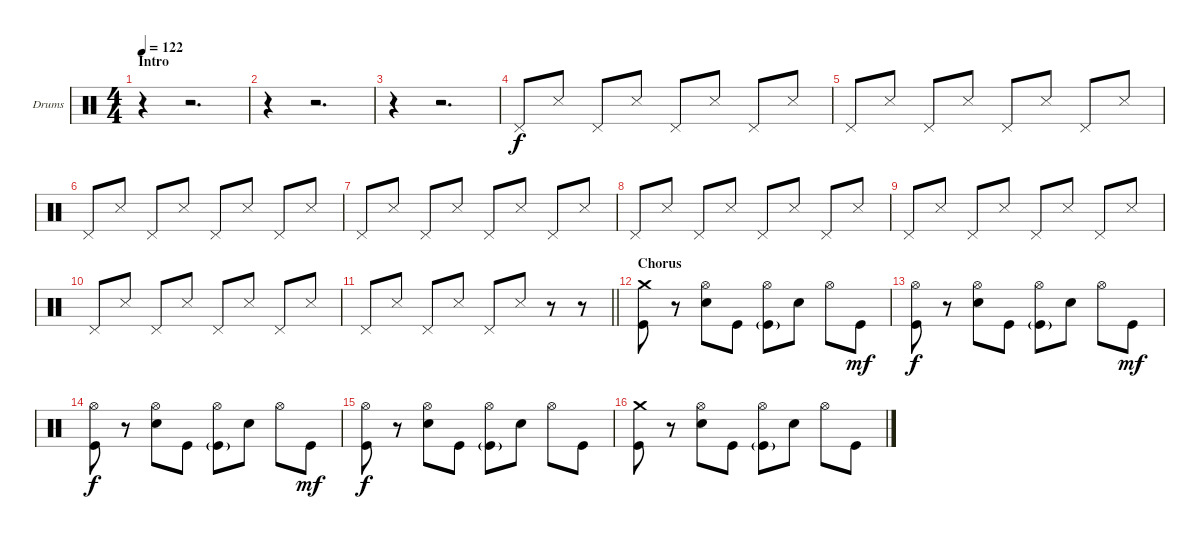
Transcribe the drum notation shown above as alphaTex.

\bracketExtendMode groupsimilarinstruments
\firstSystemTrackNameOrientation horizontal
\otherSystemsTrackNameOrientation horizontal
\track ("Drumkit" "Drums") {instrument percussion}
\staff {score}
\articulation defaults
\ts (4 4)
\section ("" "Intro")
\tempo 122
\clef neutral
\ks c
r.4{dy f} r.2{d} |
r.4 r.2{d} |
r.4 r.2{d} |
"Pedal Hi-Hat (hit)".8 "Snare (side stick) 3".8 "Pedal Hi-Hat (hit)".8 "Snare (side stick) 3".8 "Pedal Hi-Hat (hit)".8 "Snare (side stick) 3".8 "Pedal Hi-Hat (hit)".8 "Snare (side stick) 3".8 |
"Pedal Hi-Hat (hit)".8 "Snare (side stick) 3".8 "Pedal Hi-Hat (hit)".8 "Snare (side stick) 3".8 "Pedal Hi-Hat (hit)".8 "Snare (side stick) 3".8 "Pedal Hi-Hat (hit)".8 "Snare (side stick) 3".8 |
"Pedal Hi-Hat (hit)".8 "Snare (side stick) 3".8 "Pedal Hi-Hat (hit)".8 "Snare (side stick) 3".8 "Pedal Hi-Hat (hit)".8 "Snare (side stick) 3".8 "Pedal Hi-Hat (hit)".8 "Snare (side stick) 3".8 |
"Pedal Hi-Hat (hit)".8 "Snare (side stick) 3".8 "Pedal Hi-Hat (hit)".8 "Snare (side stick) 3".8 "Pedal Hi-Hat (hit)".8 "Snare (side stick) 3".8 "Pedal Hi-Hat (hit)".8 "Snare (side stick) 3".8 |
"Pedal Hi-Hat (hit)".8 "Snare (side stick) 3".8 "Pedal Hi-Hat (hit)".8 "Snare (side stick) 3".8 "Pedal Hi-Hat (hit)".8 "Snare (side stick) 3".8 "Pedal Hi-Hat (hit)".8 "Snare (side stick) 3".8 |
"Pedal Hi-Hat (hit)".8 "Snare (side stick) 3".8 "Pedal Hi-Hat (hit)".8 "Snare (side stick) 3".8 "Pedal Hi-Hat (hit)".8 "Snare (side stick) 3".8 "Pedal Hi-Hat (hit)".8 "Snare (side stick) 3".8 |
"Pedal Hi-Hat (hit)".8 "Snare (side stick) 3".8 "Pedal Hi-Hat (hit)".8 "Snare (side stick) 3".8 "Pedal Hi-Hat (hit)".8 "Snare (side stick) 3".8 "Pedal Hi-Hat (hit)".8 "Snare (side stick) 3".8 |
\barLineRight lightlight "Pedal Hi-Hat (hit)".8 "Snare (side stick) 3".8 "Pedal Hi-Hat (hit)".8 "Snare (side stick) 3".8 "Pedal Hi-Hat (hit)".8 "Snare (side stick) 3".8
r.8 r.8 |
\section ("" "Chorus")
("Crash medium (hit)" "Kick (hit)").8 r.8 ("Hi-Hat (open)" "Snare (hit) 2").8 "Kick (hit)".8 ("Hi-Hat (open)" "Kick (hit)"{g}).8 "Snare (hit) 2".8 "Hi-Hat (open)".8 "Kick (hit)".8{dy mf} |
("Hi-Hat (open)" "Kick (hit)").8{dy f} r.8 ("Hi-Hat (open)" "Snare (hit) 2").8 "Kick (hit)".8 ("Hi-Hat (open)" "Kick (hit)"{g}).8 "Snare (hit) 2".8 "Hi-Hat (open)".8 "Kick (hit)".8{dy mf} |
("Hi-Hat (open)" "Kick (hit)").8{dy f} r.8 ("Hi-Hat (open)" "Snare (hit) 2").8 "Kick (hit)".8 ("Hi-Hat (open)" "Kick (hit)"{g}).8 "Snare (hit) 2".8 "Hi-Hat (open)".8 "Kick (hit)".8{dy mf} |
("Hi-Hat (open)" "Kick (hit)").8{dy f} r.8 ("Hi-Hat (open)" "Snare (hit) 2").8 "Kick (hit)".8 ("Hi-Hat (open)" "Kick (hit)"{g}).8 "Snare (hit) 2".8 "Hi-Hat (open)".8 "Kick (hit)".8 |
("Crash medium (hit)" "Kick (hit)").8 r.8 ("Hi-Hat (open)" "Snare (hit) 2").8 "Kick (hit)".8 ("Hi-Hat (open)" "Kick (hit)"{g}).8 "Snare (hit) 2".8 "Hi-Hat (open)".8 "Kick (hit)".8
